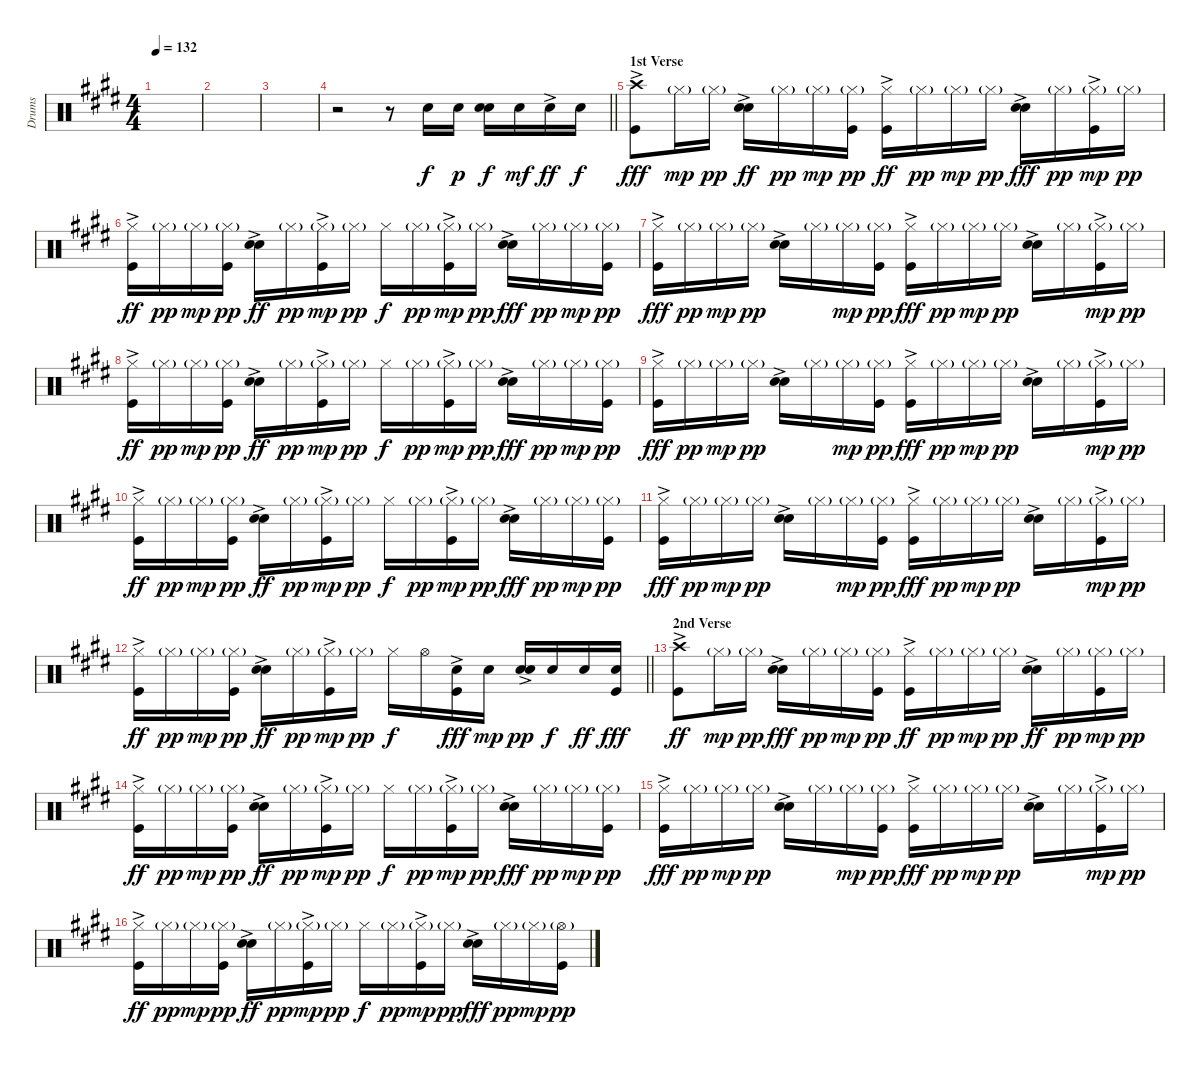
\track ("Drums" "Drums") {instrument percussion}
\staff {score}
\articulation defaults
\ts (4 4)
\tempo 132
\clef neutral
\ks e
|
|
|
\barLineRight lightlight
r.2 r.8 "Snare (hit) 2".16 "Snare (hit) 2".16{dy p} ("Snare (hit) 2" "Electric Snare (hit)").16{dy f} "Snare (hit) 2".16{dy mf} "Snare (hit) 2"{ac}.16{dy ff} "Snare (hit) 2".16{dy f} |
\section ("" "1st Verse")
("Kick (hit)"{ac} "Crash high (hit)").8{dy fff} "Hi-Hat (closed)"{g}.16{dy mp} "Hi-Hat (closed)"{g}.16{dy pp} ("Snare (hit) 2"{ac} "Electric Snare (hit)").16{dy ff} "Hi-Hat (closed)"{g}.16{dy pp} "Hi-Hat (closed)"{g}.16{dy mp} ("Kick (hit)" "Hi-Hat (closed)"{g}).16{dy pp} ("Kick (hit)"{ac} "Hi-Hat (closed)").16{dy ff} "Hi-Hat (closed)"{g}.16{dy pp} "Hi-Hat (closed)"{g}.16{dy mp} "Hi-Hat (closed)"{g}.16{dy pp} ("Snare (hit) 2"{ac} "Electric Snare (hit)").16{dy fff} "Hi-Hat (closed)"{g}.16{dy pp} ("Kick (hit)"{ac} "Hi-Hat (closed)"{g}).16{dy mp} "Hi-Hat (closed)"{g}.16{dy pp} |
("Kick (hit)"{ac} "Hi-Hat (closed)").16{dy ff} "Hi-Hat (closed)"{g}.16{dy pp} "Hi-Hat (closed)"{g}.16{dy mp} ("Kick (hit)" "Hi-Hat (closed)"{g}).16{dy pp} ("Snare (hit) 2"{ac} "Electric Snare (hit)").16{dy ff} "Hi-Hat (closed)"{g}.16{dy pp} ("Kick (hit)"{ac} "Hi-Hat (closed)"{g}).16{dy mp} "Hi-Hat (closed)"{g}.16{dy pp} "Hi-Hat (closed)".16{dy f} "Hi-Hat (closed)"{g}.16{dy pp} ("Kick (hit)"{ac} "Hi-Hat (closed)"{g}).16{dy mp} "Hi-Hat (closed)"{g}.16{dy pp} ("Snare (hit) 2"{ac} "Electric Snare (hit)").16{dy fff} "Hi-Hat (closed)"{g}.16{dy pp} "Hi-Hat (closed)"{g}.16{dy mp} ("Kick (hit)" "Hi-Hat (closed)"{g}).16{dy pp} |
("Kick (hit)"{ac} "Hi-Hat (closed)").16{dy fff} "Hi-Hat (closed)"{g}.16{dy pp} "Hi-Hat (closed)"{g}.16{dy mp} "Hi-Hat (closed)"{g}.16{dy pp} ("Snare (hit) 2"{ac} "Electric Snare (hit)").16 "Hi-Hat (closed)"{g}.16 "Hi-Hat (closed)"{g}.16{dy mp} ("Kick (hit)" "Hi-Hat (closed)"{g}).16{dy pp} ("Kick (hit)"{ac} "Hi-Hat (closed)").16{dy fff} "Hi-Hat (closed)"{g}.16{dy pp} "Hi-Hat (closed)"{g}.16{dy mp} "Hi-Hat (closed)"{g}.16{dy pp} ("Snare (hit) 2"{ac} "Electric Snare (hit)").16 "Hi-Hat (closed)"{g}.16 ("Kick (hit)"{ac} "Hi-Hat (closed)"{g}).16{dy mp} "Hi-Hat (closed)"{g}.16{dy pp} |
("Kick (hit)"{ac} "Hi-Hat (closed)").16{dy ff} "Hi-Hat (closed)"{g}.16{dy pp} "Hi-Hat (closed)"{g}.16{dy mp} ("Kick (hit)" "Hi-Hat (closed)"{g}).16{dy pp} ("Snare (hit) 2"{ac} "Electric Snare (hit)").16{dy ff} "Hi-Hat (closed)"{g}.16{dy pp} ("Kick (hit)"{ac} "Hi-Hat (closed)"{g}).16{dy mp} "Hi-Hat (closed)"{g}.16{dy pp} "Hi-Hat (closed)".16{dy f} "Hi-Hat (closed)"{g}.16{dy pp} ("Kick (hit)"{ac} "Hi-Hat (closed)"{g}).16{dy mp} "Hi-Hat (closed)"{g}.16{dy pp} ("Snare (hit) 2"{ac} "Electric Snare (hit)").16{dy fff} "Hi-Hat (closed)"{g}.16{dy pp} "Hi-Hat (closed)"{g}.16{dy mp} ("Kick (hit)" "Hi-Hat (closed)"{g}).16{dy pp} |
("Kick (hit)"{ac} "Hi-Hat (closed)").16{dy fff} "Hi-Hat (closed)"{g}.16{dy pp} "Hi-Hat (closed)"{g}.16{dy mp} "Hi-Hat (closed)"{g}.16{dy pp} ("Snare (hit) 2"{ac} "Electric Snare (hit)").16 "Hi-Hat (closed)"{g}.16 "Hi-Hat (closed)"{g}.16{dy mp} ("Kick (hit)" "Hi-Hat (closed)"{g}).16{dy pp} ("Kick (hit)"{ac} "Hi-Hat (closed)").16{dy fff} "Hi-Hat (closed)"{g}.16{dy pp} "Hi-Hat (closed)"{g}.16{dy mp} "Hi-Hat (closed)"{g}.16{dy pp} ("Snare (hit) 2"{ac} "Electric Snare (hit)").16 "Hi-Hat (closed)"{g}.16 ("Kick (hit)"{ac} "Hi-Hat (closed)"{g}).16{dy mp} "Hi-Hat (closed)"{g}.16{dy pp} |
("Kick (hit)"{ac} "Hi-Hat (closed)").16{dy ff} "Hi-Hat (closed)"{g}.16{dy pp} "Hi-Hat (closed)"{g}.16{dy mp} ("Kick (hit)" "Hi-Hat (closed)"{g}).16{dy pp} ("Snare (hit) 2"{ac} "Electric Snare (hit)").16{dy ff} "Hi-Hat (closed)"{g}.16{dy pp} ("Kick (hit)"{ac} "Hi-Hat (closed)"{g}).16{dy mp} "Hi-Hat (closed)"{g}.16{dy pp} "Hi-Hat (closed)".16{dy f} "Hi-Hat (closed)"{g}.16{dy pp} ("Kick (hit)"{ac} "Hi-Hat (closed)"{g}).16{dy mp} "Hi-Hat (closed)"{g}.16{dy pp} ("Snare (hit) 2"{ac} "Electric Snare (hit)").16{dy fff} "Hi-Hat (closed)"{g}.16{dy pp} "Hi-Hat (closed)"{g}.16{dy mp} ("Kick (hit)" "Hi-Hat (closed)"{g}).16{dy pp} |
("Kick (hit)"{ac} "Hi-Hat (closed)").16{dy fff} "Hi-Hat (closed)"{g}.16{dy pp} "Hi-Hat (closed)"{g}.16{dy mp} "Hi-Hat (closed)"{g}.16{dy pp} ("Snare (hit) 2"{ac} "Electric Snare (hit)").16 "Hi-Hat (closed)"{g}.16 "Hi-Hat (closed)"{g}.16{dy mp} ("Kick (hit)" "Hi-Hat (closed)"{g}).16{dy pp} ("Kick (hit)"{ac} "Hi-Hat (closed)").16{dy fff} "Hi-Hat (closed)"{g}.16{dy pp} "Hi-Hat (closed)"{g}.16{dy mp} "Hi-Hat (closed)"{g}.16{dy pp} ("Snare (hit) 2"{ac} "Electric Snare (hit)").16 "Hi-Hat (closed)"{g}.16 ("Kick (hit)"{ac} "Hi-Hat (closed)"{g}).16{dy mp} "Hi-Hat (closed)"{g}.16{dy pp} |
\barLineRight lightlight
("Kick (hit)"{ac} "Hi-Hat (closed)").16{dy ff} "Hi-Hat (closed)"{g}.16{dy pp} "Hi-Hat (closed)"{g}.16{dy mp} ("Kick (hit)" "Hi-Hat (closed)"{g}).16{dy pp} ("Snare (hit) 2"{ac} "Electric Snare (hit)").16{dy ff} "Hi-Hat (closed)"{g}.16{dy pp} ("Kick (hit)"{ac} "Hi-Hat (closed)"{g}).16{dy mp} "Hi-Hat (closed)"{g}.16{dy pp} "Hi-Hat (closed)".16{dy f} "Hi-Hat (open)".16 ("Kick (hit)"{ac} "Snare (hit) 2").16{dy fff} "Snare (hit) 2".16{dy mp} ("Snare (hit) 2"{ac} "Electric Snare (hit)").16{dy pp} "Snare (hit) 2".16{dy f} "Snare (hit) 2".16{dy ff} ("Kick (hit)" "Snare (hit) 2").16{dy fff} |
\section ("" "2nd Verse")
("Kick (hit)"{ac} "Crash high (hit)").8{dy ff} "Hi-Hat (closed)"{g}.16{dy mp} "Hi-Hat (closed)"{g}.16{dy pp} ("Snare (hit) 2"{ac} "Electric Snare (hit)").16{dy fff} "Hi-Hat (closed)"{g}.16{dy pp} "Hi-Hat (closed)"{g}.16{dy mp} ("Kick (hit)" "Hi-Hat (closed)"{g}).16{dy pp} ("Kick (hit)"{ac} "Hi-Hat (closed)").16{dy ff} "Hi-Hat (closed)"{g}.16{dy pp} "Hi-Hat (closed)"{g}.16{dy mp} "Hi-Hat (closed)"{g}.16{dy pp} ("Snare (hit) 2"{ac} "Electric Snare (hit)").16{dy ff} "Hi-Hat (closed)"{g}.16{dy pp} ("Kick (hit)" "Hi-Hat (closed)"{g}).16{dy mp} "Hi-Hat (closed)"{g}.16{dy pp} |
("Kick (hit)"{ac} "Hi-Hat (closed)").16{dy ff} "Hi-Hat (closed)"{g}.16{dy pp} "Hi-Hat (closed)"{g}.16{dy mp} ("Kick (hit)" "Hi-Hat (closed)"{g}).16{dy pp} ("Snare (hit) 2"{ac} "Electric Snare (hit)").16{dy ff} "Hi-Hat (closed)"{g}.16{dy pp} ("Kick (hit)"{ac} "Hi-Hat (closed)"{g}).16{dy mp} "Hi-Hat (closed)"{g}.16{dy pp} "Hi-Hat (closed)".16{dy f} "Hi-Hat (closed)"{g}.16{dy pp} ("Kick (hit)"{ac} "Hi-Hat (closed)"{g}).16{dy mp} "Hi-Hat (closed)"{g}.16{dy pp} ("Snare (hit) 2"{ac} "Electric Snare (hit)").16{dy fff} "Hi-Hat (closed)"{g}.16{dy pp} "Hi-Hat (closed)"{g}.16{dy mp} ("Kick (hit)" "Hi-Hat (closed)"{g}).16{dy pp} |
("Kick (hit)"{ac} "Hi-Hat (closed)").16{dy fff} "Hi-Hat (closed)"{g}.16{dy pp} "Hi-Hat (closed)"{g}.16{dy mp} "Hi-Hat (closed)"{g}.16{dy pp} ("Snare (hit) 2"{ac} "Electric Snare (hit)").16 "Hi-Hat (closed)"{g}.16 "Hi-Hat (closed)"{g}.16{dy mp} ("Kick (hit)" "Hi-Hat (closed)"{g}).16{dy pp} ("Kick (hit)"{ac} "Hi-Hat (closed)").16{dy fff} "Hi-Hat (closed)"{g}.16{dy pp} "Hi-Hat (closed)"{g}.16{dy mp} "Hi-Hat (closed)"{g}.16{dy pp} ("Snare (hit) 2"{ac} "Electric Snare (hit)").16 "Hi-Hat (closed)"{g}.16 ("Kick (hit)"{ac} "Hi-Hat (closed)"{g}).16{dy mp} "Hi-Hat (closed)"{g}.16{dy pp} |
("Kick (hit)"{ac} "Hi-Hat (closed)").16{dy ff} "Hi-Hat (closed)"{g}.16{dy pp} "Hi-Hat (closed)"{g}.16{dy mp} ("Kick (hit)" "Hi-Hat (closed)"{g}).16{dy pp} ("Snare (hit) 2"{ac} "Electric Snare (hit)").16{dy ff} "Hi-Hat (closed)"{g}.16{dy pp} ("Kick (hit)"{ac} "Hi-Hat (closed)"{g}).16{dy mp} "Hi-Hat (closed)"{g}.16{dy pp} "Hi-Hat (closed)".16{dy f} "Hi-Hat (closed)"{g}.16{dy pp} ("Kick (hit)"{ac} "Hi-Hat (closed)"{g}).16{dy mp} "Hi-Hat (closed)"{g}.16{dy pp} ("Snare (hit) 2"{ac} "Electric Snare (hit)").16{dy fff} "Hi-Hat (closed)"{g}.16{dy pp} "Hi-Hat (closed)"{g}.16{dy mp} ("Kick (hit)" "Hi-Hat (open)"{g}).16{dy pp}
